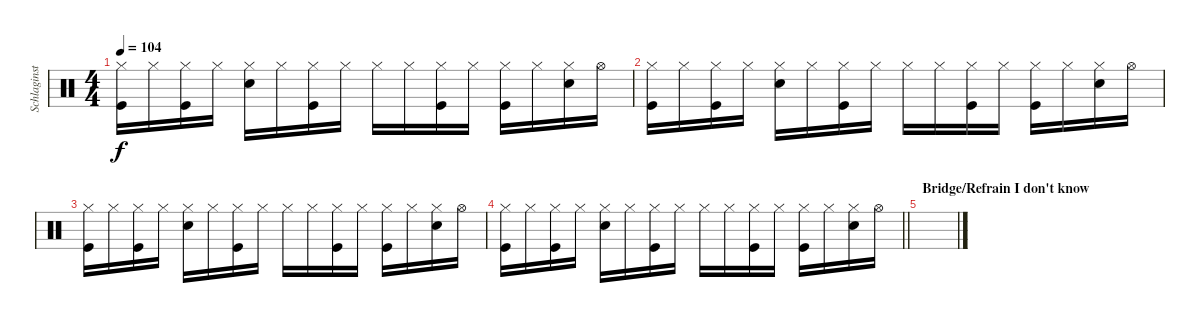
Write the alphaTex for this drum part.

\track ("Schlaginstrumente - Auswahl" "Schlaginst") {instrument percussion}
\staff {score}
\articulation defaults
\ts (4 4)
\tempo 104
\clef neutral
\ks c
("Hi-Hat (closed)" "Kick (hit)").16{dy f} "Hi-Hat (closed)".16 ("Hi-Hat (closed)" "Kick (hit)").16 "Hi-Hat (closed)".16 ("Hi-Hat (closed)" "Snare (hit) 2").16 "Hi-Hat (closed)".16 ("Hi-Hat (closed)" "Kick (hit)").16 "Hi-Hat (closed)".16 "Hi-Hat (closed)".16 "Hi-Hat (closed)".16 ("Hi-Hat (closed)" "Kick (hit)").16 "Hi-Hat (closed)".16 ("Hi-Hat (closed)" "Kick (hit)").16 "Hi-Hat (closed)".16 ("Hi-Hat (closed)" "Snare (hit) 2").16 "Hi-Hat (open)".16 |
("Hi-Hat (closed)" "Kick (hit)").16 "Hi-Hat (closed)".16 ("Hi-Hat (closed)" "Kick (hit)").16 "Hi-Hat (closed)".16 ("Hi-Hat (closed)" "Snare (hit) 2").16 "Hi-Hat (closed)".16 ("Hi-Hat (closed)" "Kick (hit)").16 "Hi-Hat (closed)".16 "Hi-Hat (closed)".16 "Hi-Hat (closed)".16 ("Hi-Hat (closed)" "Kick (hit)").16 "Hi-Hat (closed)".16 ("Hi-Hat (closed)" "Kick (hit)").16 "Hi-Hat (closed)".16 ("Hi-Hat (closed)" "Snare (hit) 2").16 "Hi-Hat (open)".16 |
("Hi-Hat (closed)" "Kick (hit)").16 "Hi-Hat (closed)".16 ("Hi-Hat (closed)" "Kick (hit)").16 "Hi-Hat (closed)".16 ("Hi-Hat (closed)" "Snare (hit) 2").16 "Hi-Hat (closed)".16 ("Hi-Hat (closed)" "Kick (hit)").16 "Hi-Hat (closed)".16 "Hi-Hat (closed)".16 "Hi-Hat (closed)".16 ("Hi-Hat (closed)" "Kick (hit)").16 "Hi-Hat (closed)".16 ("Hi-Hat (closed)" "Kick (hit)").16 "Hi-Hat (closed)".16 ("Hi-Hat (closed)" "Snare (hit) 2").16 "Hi-Hat (open)".16 |
\barLineRight lightlight
("Hi-Hat (closed)" "Kick (hit)").16 "Hi-Hat (closed)".16 ("Hi-Hat (closed)" "Kick (hit)").16 "Hi-Hat (closed)".16 ("Hi-Hat (closed)" "Snare (hit) 2").16 "Hi-Hat (closed)".16 ("Hi-Hat (closed)" "Kick (hit)").16 "Hi-Hat (closed)".16 "Hi-Hat (closed)".16 "Hi-Hat (closed)".16 ("Hi-Hat (closed)" "Kick (hit)").16 "Hi-Hat (closed)".16 ("Hi-Hat (closed)" "Kick (hit)").16 "Hi-Hat (closed)".16 ("Hi-Hat (closed)" "Snare (hit) 2").16 "Hi-Hat (open)".16 |
\section ("" "Bridge/Refrain I don't know")
